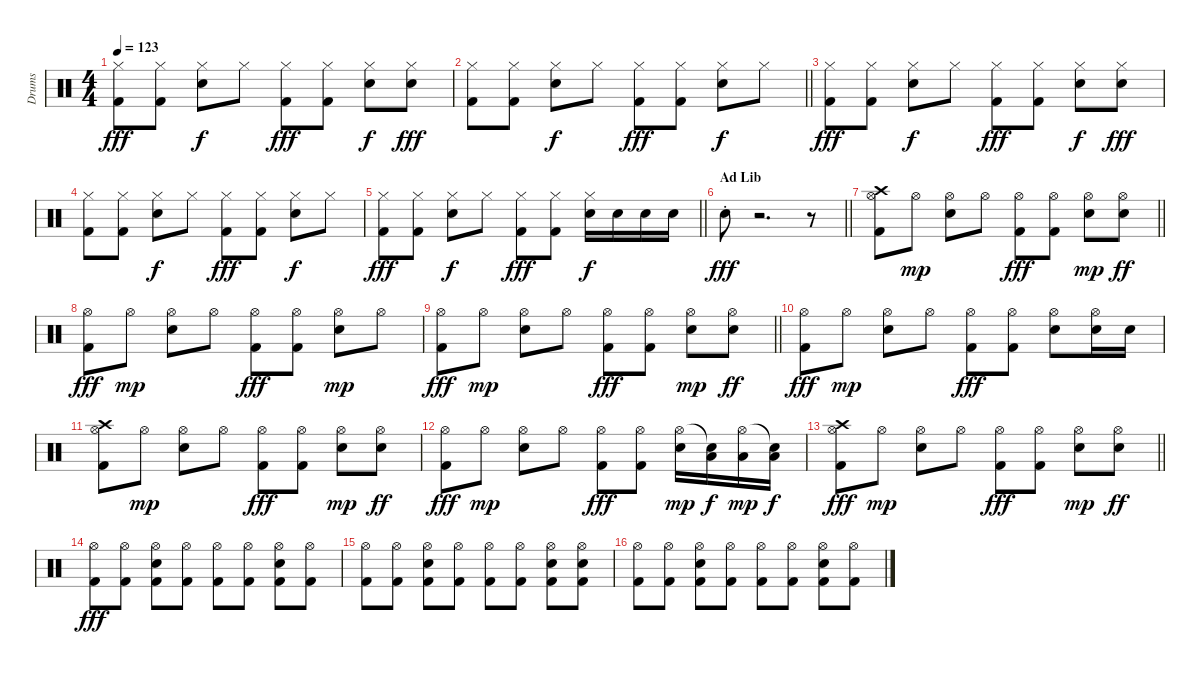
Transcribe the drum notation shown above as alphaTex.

\track ("Drums" "Drums") {instrument percussion}
\staff {score}
\articulation defaults
\ts (4 4)
\tempo 123
\clef neutral
\ks c
("Hi-Hat (closed)" "Kick (hit) 2").8{dy fff} ("Hi-Hat (closed)" "Kick (hit) 2").8 ("Hi-Hat (closed)" "Snare (hit) 2").8{dy f} "Hi-Hat (closed)".8 ("Hi-Hat (closed)" "Kick (hit) 2").8{dy fff} ("Hi-Hat (closed)" "Kick (hit) 2").8 ("Hi-Hat (closed)" "Snare (hit) 2").8{dy f} ("Hi-Hat (closed)" "Snare (hit) 2").8{dy fff} |
\barLineRight lightlight
("Hi-Hat (closed)" "Kick (hit) 2").8 ("Hi-Hat (closed)" "Kick (hit) 2").8 ("Hi-Hat (closed)" "Snare (hit) 2").8{dy f} "Hi-Hat (closed)".8 ("Hi-Hat (closed)" "Kick (hit) 2").8{dy fff} ("Hi-Hat (closed)" "Kick (hit) 2").8 ("Hi-Hat (closed)" "Snare (hit) 2").8{dy f} "Hi-Hat (closed)".8 |
("Hi-Hat (closed)" "Kick (hit) 2").8{dy fff} ("Hi-Hat (closed)" "Kick (hit) 2").8 ("Hi-Hat (closed)" "Snare (hit) 2").8{dy f} "Hi-Hat (closed)".8 ("Hi-Hat (closed)" "Kick (hit) 2").8{dy fff} ("Hi-Hat (closed)" "Kick (hit) 2").8 ("Hi-Hat (closed)" "Snare (hit) 2").8{dy f} ("Hi-Hat (closed)" "Snare (hit) 2").8{dy fff} |
("Hi-Hat (closed)" "Kick (hit) 2").8 ("Hi-Hat (closed)" "Kick (hit) 2").8 ("Hi-Hat (closed)" "Snare (hit) 2").8{dy f} "Hi-Hat (closed)".8 ("Hi-Hat (closed)" "Kick (hit) 2").8{dy fff} ("Hi-Hat (closed)" "Kick (hit) 2").8 ("Hi-Hat (closed)" "Snare (hit) 2").8{dy f} "Hi-Hat (closed)".8 |
\barLineRight lightlight
("Hi-Hat (closed)" "Kick (hit) 2").8{dy fff} ("Hi-Hat (closed)" "Kick (hit) 2").8 ("Hi-Hat (closed)" "Snare (hit) 2").8{dy f} "Hi-Hat (closed)".8 ("Hi-Hat (closed)" "Kick (hit) 2").8{dy fff} ("Hi-Hat (closed)" "Kick (hit) 2").8 ("Hi-Hat (closed)" "Snare (hit) 2").16{dy f} "Snare (hit) 2".16 "Snare (hit) 2".16 "Snare (hit) 2".16 |
\section ("" "Ad Lib")
\barLineRight lightlight "Snare (hit) 2"{st}.8{dy fff}
r.2{d} r.8 |
\barLineRight lightlight
("Hi-Hat (open)" "Kick (hit) 2" "Crash high (hit)").8 "Hi-Hat (open)".8{dy mp} ("Hi-Hat (open)" "Snare (hit) 2").8 "Hi-Hat (open)".8 ("Hi-Hat (open)" "Kick (hit) 2").8{dy fff} ("Hi-Hat (open)" "Kick (hit) 2").8 ("Hi-Hat (open)" "Snare (hit) 2").8{dy mp} ("Hi-Hat (open)" "Snare (hit) 2").8{dy ff} |
("Hi-Hat (open)" "Kick (hit) 2").8{dy fff} "Hi-Hat (open)".8{dy mp} ("Hi-Hat (open)" "Snare (hit) 2").8 "Hi-Hat (open)".8 ("Hi-Hat (open)" "Kick (hit) 2").8{dy fff} ("Hi-Hat (open)" "Kick (hit) 2").8 ("Hi-Hat (open)" "Snare (hit) 2").8{dy mp} "Hi-Hat (open)".8 |
\barLineRight lightlight
("Hi-Hat (open)" "Kick (hit) 2").8{dy fff} "Hi-Hat (open)".8{dy mp} ("Hi-Hat (open)" "Snare (hit) 2").8 "Hi-Hat (open)".8 ("Hi-Hat (open)" "Kick (hit) 2").8{dy fff} ("Hi-Hat (open)" "Kick (hit) 2").8 ("Hi-Hat (open)" "Snare (hit) 2").8{dy mp} ("Hi-Hat (open)" "Snare (hit) 2").8{dy ff} |
("Hi-Hat (open)" "Kick (hit) 2").8{dy fff} "Hi-Hat (open)".8{dy mp} ("Hi-Hat (open)" "Snare (hit) 2").8 "Hi-Hat (open)".8 ("Hi-Hat (open)" "Kick (hit) 2").8{dy fff} ("Hi-Hat (open)" "Kick (hit) 2").8 ("Hi-Hat (open)" "Snare (hit) 2").8 ("Hi-Hat (open)" "Snare (hit) 2").16 "Snare (hit) 2".16 |
("Hi-Hat (open)" "Kick (hit) 2" "Crash high (hit)").8 "Hi-Hat (open)".8{dy mp} ("Hi-Hat (open)" "Snare (hit) 2").8 "Hi-Hat (open)".8 ("Hi-Hat (open)" "Kick (hit) 2").8{dy fff} ("Hi-Hat (open)" "Kick (hit) 2").8 ("Hi-Hat (open)" "Snare (hit) 2").8{dy mp} ("Hi-Hat (open)" "Snare (hit) 2").8{dy ff} |
("Hi-Hat (open)" "Kick (hit) 2").8{dy fff} "Hi-Hat (open)".8{dy mp} ("Hi-Hat (open)" "Snare (hit) 2").8 "Hi-Hat (open)".8 ("Hi-Hat (open)" "Kick (hit) 2").8{dy fff} ("Hi-Hat (open)" "Kick (hit) 2").8 ("Hi-Hat (open)" "Snare (hit) 2").16{dy mp} ("Snare (hit)"{t} "Low Tom (hit)").16{dy f} ("Hi-Hat (open)" "Low Tom (hit)").16{dy mp} ("Snare (hit)"{t} "Low Tom (hit)").16{dy f} |
\barLineRight lightlight
("Hi-Hat (open)" "Kick (hit) 2" "Crash high (hit)").8{dy fff} "Hi-Hat (open)".8{dy mp} ("Hi-Hat (open)" "Snare (hit) 2").8 "Hi-Hat (open)".8 ("Hi-Hat (open)" "Kick (hit) 2").8{dy fff} ("Hi-Hat (open)" "Kick (hit) 2").8 ("Hi-Hat (open)" "Snare (hit) 2").8{dy mp} ("Hi-Hat (open)" "Snare (hit) 2").8{dy ff} |
("Hi-Hat (open)" "Kick (hit) 2").8{dy fff} ("Hi-Hat (open)" "Kick (hit) 2").8 ("Hi-Hat (open)" "Kick (hit) 2" "Snare (hit) 2").8 ("Hi-Hat (open)" "Kick (hit) 2").8 ("Hi-Hat (open)" "Kick (hit) 2").8 ("Hi-Hat (open)" "Kick (hit) 2").8 ("Hi-Hat (open)" "Kick (hit) 2" "Snare (hit) 2").8 ("Hi-Hat (open)" "Kick (hit) 2").8 |
("Hi-Hat (open)" "Kick (hit) 2").8 ("Hi-Hat (open)" "Kick (hit) 2").8 ("Hi-Hat (open)" "Kick (hit) 2" "Snare (hit) 2").8 ("Hi-Hat (open)" "Kick (hit) 2").8 ("Hi-Hat (open)" "Kick (hit) 2").8 ("Hi-Hat (open)" "Kick (hit) 2").8 ("Hi-Hat (open)" "Kick (hit) 2" "Snare (hit) 2").8 ("Hi-Hat (open)" "Kick (hit) 2" "Snare (hit) 2").8 |
("Hi-Hat (open)" "Kick (hit) 2").8 ("Hi-Hat (open)" "Kick (hit) 2").8 ("Hi-Hat (open)" "Kick (hit) 2" "Snare (hit) 2").8 ("Hi-Hat (open)" "Kick (hit) 2").8 ("Hi-Hat (open)" "Kick (hit) 2").8 ("Hi-Hat (open)" "Kick (hit) 2").8 ("Hi-Hat (open)" "Kick (hit) 2" "Snare (hit) 2").8 ("Hi-Hat (open)" "Kick (hit) 2").8
